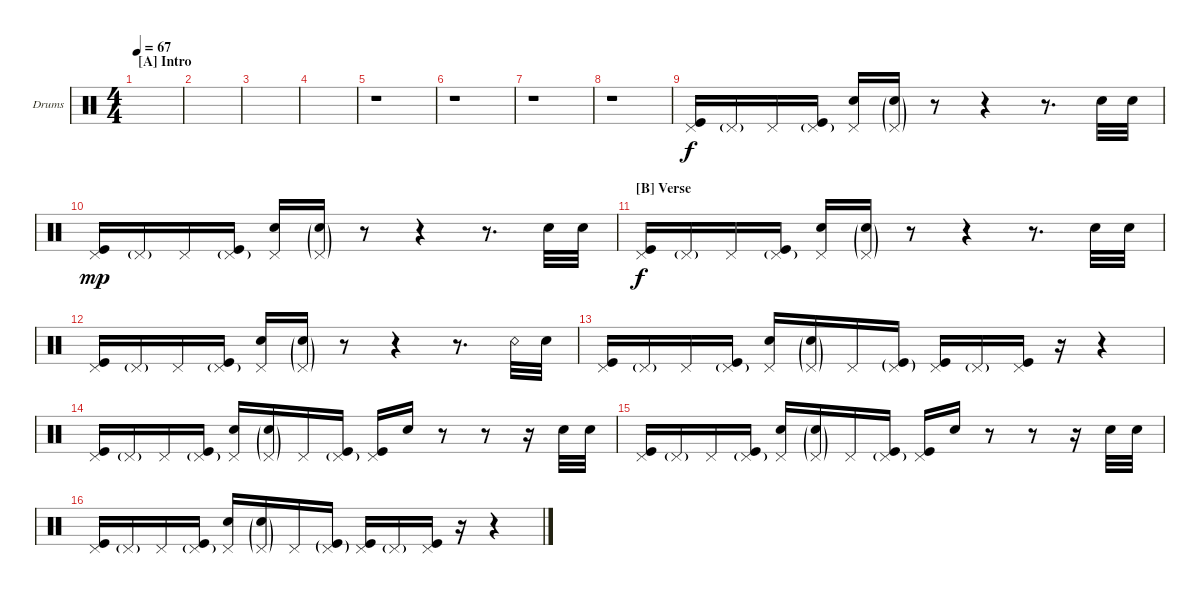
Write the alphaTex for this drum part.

\defaultSystemsLayout 4
\bracketExtendMode groupsimilarinstruments
\firstSystemTrackNameOrientation horizontal
\otherSystemsTrackNameOrientation horizontal
\track ("Freese" "Drums") {instrument percussion}
\staff {score}
\articulation defaults
\ts (4 4)
\section ("A" "Intro")
\tempo 67
\clef neutral
\ks c
|
|
|
|
\scale
0.502222 r.1 |
\scale
0.248889 r.1 |
\scale
0.248889 r.1 |
\scale
0.356322 r.1 |
\scale
0.321839 ("Pedal Hi-Hat (hit)" "Kick (hit)").16 "Pedal Hi-Hat (hit)"{g}.16 "Pedal Hi-Hat (hit)".16 ("Kick (hit)" "Pedal Hi-Hat (hit)"{g}).16 ("Pedal Hi-Hat (hit)" "Snare (hit) 2").16 ("Pedal Hi-Hat (hit)"{g} "Snare (hit) 2"{g}).16 r.8 r.4 r.8{d} "Snare (hit) 2".32 "Snare (hit) 2".32 |
\scale
0.321839 ("Pedal Hi-Hat (hit)" "Kick (hit)").16{dy mp} "Pedal Hi-Hat (hit)"{g}.16 "Pedal Hi-Hat (hit)".16 ("Kick (hit)" "Pedal Hi-Hat (hit)"{g}).16 ("Pedal Hi-Hat (hit)" "Snare (hit) 2").16 ("Pedal Hi-Hat (hit)"{g} "Snare (hit) 2"{g}).16 r.8 r.4 r.8{d} "Snare (hit) 2".32 "Snare (hit) 2".32 |
\section ("B" "Verse")
\scale
0.333333 ("Pedal Hi-Hat (hit)" "Kick (hit)").16{dy f} "Pedal Hi-Hat (hit)"{g}.16 "Pedal Hi-Hat (hit)".16 ("Kick (hit)" "Pedal Hi-Hat (hit)"{g}).16 ("Pedal Hi-Hat (hit)" "Snare (hit) 2").16 ("Pedal Hi-Hat (hit)"{g} "Snare (hit) 2"{g}).16 r.8 r.4 r.8{d} "Snare (hit) 2".32 "Snare (hit) 2".32 |
\scale
0.333333 ("Pedal Hi-Hat (hit)" "Kick (hit)").16 "Pedal Hi-Hat (hit)"{g}.16 "Pedal Hi-Hat (hit)".16 ("Kick (hit)" "Pedal Hi-Hat (hit)"{g}).16 ("Pedal Hi-Hat (hit)" "Snare (hit) 2").16 ("Pedal Hi-Hat (hit)"{g} "Snare (hit) 2"{g}).16 r.8 r.4 r.8{d} "Snare (rim shot)".32 "Snare (hit) 2".32 |
\scale
0.333333 ("Pedal Hi-Hat (hit)" "Kick (hit)").16 "Pedal Hi-Hat (hit)"{g}.16 "Pedal Hi-Hat (hit)".16 ("Kick (hit)" "Pedal Hi-Hat (hit)"{g}).16 ("Pedal Hi-Hat (hit)" "Snare (hit) 2").16 ("Pedal Hi-Hat (hit)"{g} "Snare (hit) 2"{g}).16 "Pedal Hi-Hat (hit)".16 ("Pedal Hi-Hat (hit)"{g} "Kick (hit)"{g}).16 ("Kick (hit)" "Pedal Hi-Hat (hit)").16 "Pedal Hi-Hat (hit)"{g}.16 ("Pedal Hi-Hat (hit)" "Kick (hit)").16 r.16 r.4 |
\scale
0.333333 ("Pedal Hi-Hat (hit)" "Kick (hit)").16 "Pedal Hi-Hat (hit)"{g}.16 "Pedal Hi-Hat (hit)".16 ("Kick (hit)" "Pedal Hi-Hat (hit)"{g}).16 ("Pedal Hi-Hat (hit)" "Snare (hit) 2").16 ("Pedal Hi-Hat (hit)"{g} "Snare (hit) 2"{g}).16 "Pedal Hi-Hat (hit)".16 ("Pedal Hi-Hat (hit)"{g} "Kick (hit)").16 ("Kick (hit)" "Pedal Hi-Hat (hit)").16 "Snare (hit) 2".16 r.8 r.8 r.16 "Snare (hit) 2".32 "Snare (hit) 2".32 |
\scale
0.333333 ("Pedal Hi-Hat (hit)" "Kick (hit)").16 "Pedal Hi-Hat (hit)"{g}.16 "Pedal Hi-Hat (hit)".16 ("Kick (hit)" "Pedal Hi-Hat (hit)"{g}).16 ("Pedal Hi-Hat (hit)" "Snare (hit) 2").16 ("Pedal Hi-Hat (hit)"{g} "Snare (hit) 2"{g}).16 "Pedal Hi-Hat (hit)".16 ("Pedal Hi-Hat (hit)"{g} "Kick (hit)").16 ("Kick (hit)" "Pedal Hi-Hat (hit)").16 "Snare (hit) 2".16 r.8 r.8 r.16 "Snare (hit) 2".32 "Snare (hit) 2".32 |
\scale
0.333333 ("Pedal Hi-Hat (hit)" "Kick (hit)").16 "Pedal Hi-Hat (hit)"{g}.16 "Pedal Hi-Hat (hit)".16 ("Kick (hit)" "Pedal Hi-Hat (hit)"{g}).16 ("Pedal Hi-Hat (hit)" "Snare (hit) 2").16 ("Pedal Hi-Hat (hit)"{g} "Snare (hit) 2"{g}).16 "Pedal Hi-Hat (hit)".16 ("Pedal Hi-Hat (hit)"{g} "Kick (hit)"{g}).16 ("Kick (hit)" "Pedal Hi-Hat (hit)").16 "Pedal Hi-Hat (hit)"{g}.16 ("Pedal Hi-Hat (hit)" "Kick (hit)").16 r.16 r.4
